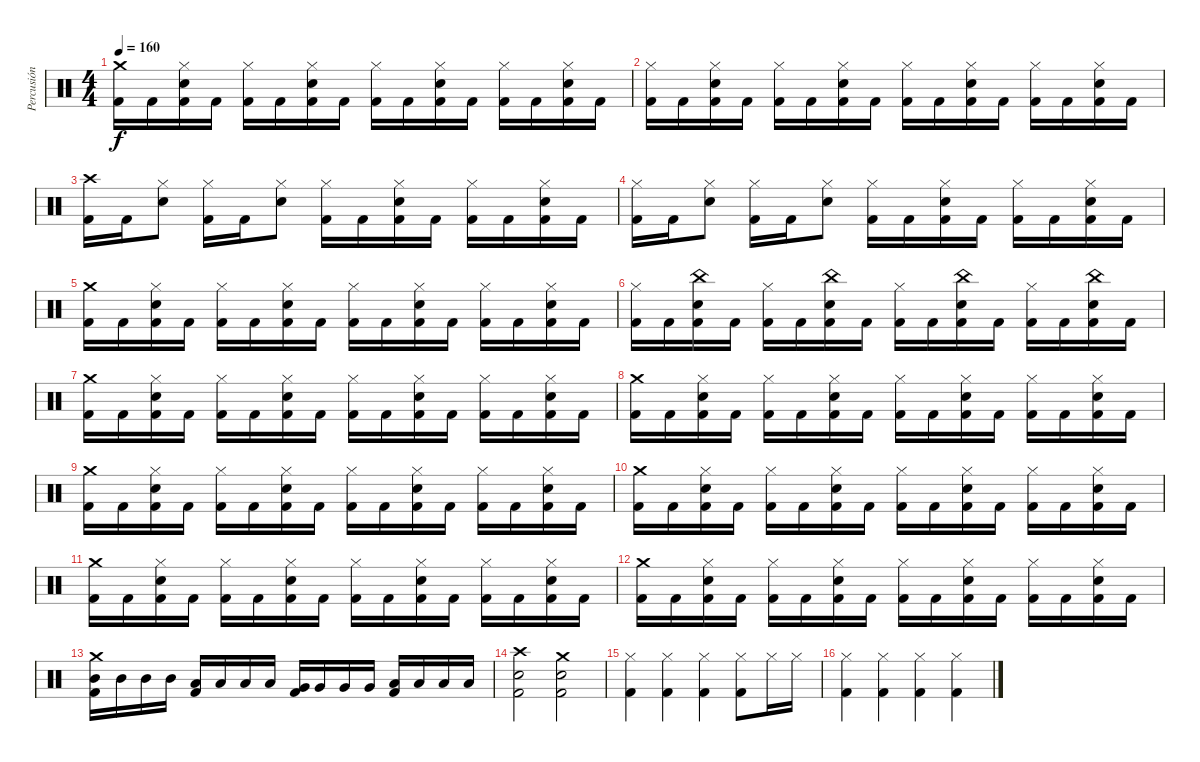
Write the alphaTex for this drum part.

\track ("Percusión" "Percusión") {instrument percussion}
\staff {score}
\articulation defaults
\ts (4 4)
\tempo 160
\clef neutral
\ks c
("Crash medium (hit)" "Kick (hit) 2").16{dy f} "Kick (hit) 2".16 ("Hi-Hat (closed)" "Electric Snare (hit)" "Kick (hit) 2").16 "Kick (hit) 2".16 ("Hi-Hat (closed)" "Kick (hit) 2").16 "Kick (hit) 2".16 ("Hi-Hat (closed)" "Electric Snare (hit)" "Kick (hit) 2").16 "Kick (hit) 2".16 ("Hi-Hat (closed)" "Kick (hit) 2").16 "Kick (hit) 2".16 ("Hi-Hat (closed)" "Electric Snare (hit)" "Kick (hit) 2").16 "Kick (hit) 2".16 ("Hi-Hat (closed)" "Kick (hit) 2").16 "Kick (hit) 2".16 ("Hi-Hat (closed)" "Electric Snare (hit)" "Kick (hit) 2").16 "Kick (hit) 2".16 |
("Hi-Hat (closed)" "Kick (hit) 2").16 "Kick (hit) 2".16 ("Hi-Hat (closed)" "Electric Snare (hit)" "Kick (hit) 2").16 "Kick (hit) 2".16 ("Hi-Hat (closed)" "Kick (hit) 2").16 "Kick (hit) 2".16 ("Hi-Hat (closed)" "Electric Snare (hit)" "Kick (hit) 2").16 "Kick (hit) 2".16 ("Hi-Hat (closed)" "Kick (hit) 2").16 "Kick (hit) 2".16 ("Hi-Hat (closed)" "Electric Snare (hit)" "Kick (hit) 2").16 "Kick (hit) 2".16 ("Hi-Hat (closed)" "Kick (hit) 2").16 "Kick (hit) 2".16 ("Hi-Hat (closed)" "Electric Snare (hit)" "Kick (hit) 2").16 "Kick (hit) 2".16 |
("Crash high (hit)" "Kick (hit) 2").16 "Kick (hit) 2".16 ("Hi-Hat (closed)" "Electric Snare (hit)").8 ("Hi-Hat (closed)" "Kick (hit) 2").16 "Kick (hit) 2".16 ("Hi-Hat (closed)" "Electric Snare (hit)").8 ("Hi-Hat (closed)" "Kick (hit) 2").16 "Kick (hit) 2".16 ("Hi-Hat (closed)" "Electric Snare (hit)" "Kick (hit) 2").16 "Kick (hit) 2".16 ("Hi-Hat (closed)" "Kick (hit) 2").16 "Kick (hit) 2".16 ("Hi-Hat (closed)" "Electric Snare (hit)" "Kick (hit) 2").16 "Kick (hit) 2".16 |
("Hi-Hat (closed)" "Kick (hit) 2").16 "Kick (hit) 2".16 ("Hi-Hat (closed)" "Electric Snare (hit)").8 ("Hi-Hat (closed)" "Kick (hit) 2").16 "Kick (hit) 2".16 ("Hi-Hat (closed)" "Electric Snare (hit)").8 ("Hi-Hat (closed)" "Kick (hit) 2").16 "Kick (hit) 2".16 ("Hi-Hat (closed)" "Electric Snare (hit)" "Kick (hit) 2").16 "Kick (hit) 2".16 ("Hi-Hat (closed)" "Kick (hit) 2").16 "Kick (hit) 2".16 ("Hi-Hat (closed)" "Electric Snare (hit)" "Kick (hit) 2").16 "Kick (hit) 2".16 |
("Crash medium (hit)" "Kick (hit) 2").16 "Kick (hit) 2".16 ("Hi-Hat (closed)" "Electric Snare (hit)" "Kick (hit) 2").16 "Kick (hit) 2".16 ("Hi-Hat (closed)" "Kick (hit) 2").16 "Kick (hit) 2".16 ("Hi-Hat (closed)" "Electric Snare (hit)" "Kick (hit) 2").16 "Kick (hit) 2".16 ("Hi-Hat (closed)" "Kick (hit) 2").16 "Kick (hit) 2".16 ("Hi-Hat (closed)" "Electric Snare (hit)" "Kick (hit) 2").16 "Kick (hit) 2".16 ("Hi-Hat (closed)" "Kick (hit) 2").16 "Kick (hit) 2".16 ("Hi-Hat (closed)" "Electric Snare (hit)" "Kick (hit) 2").16 "Kick (hit) 2".16 |
("Hi-Hat (closed)" "Kick (hit) 2").16 "Kick (hit) 2".16 ("China (hit)" "Electric Snare (hit)" "Kick (hit) 2").16 "Kick (hit) 2".16 ("Hi-Hat (closed)" "Kick (hit) 2").16 "Kick (hit) 2".16 ("China (hit)" "Electric Snare (hit)" "Kick (hit) 2").16 "Kick (hit) 2".16 ("Hi-Hat (closed)" "Kick (hit) 2").16 "Kick (hit) 2".16 ("China (hit)" "Electric Snare (hit)" "Kick (hit) 2").16 "Kick (hit) 2".16 ("Hi-Hat (closed)" "Kick (hit) 2").16 "Kick (hit) 2".16 ("China (hit)" "Electric Snare (hit)" "Kick (hit) 2").16 "Kick (hit) 2".16 |
("Crash medium (hit)" "Kick (hit) 2").16 "Kick (hit) 2".16 ("Hi-Hat (closed)" "Electric Snare (hit)" "Kick (hit) 2").16 "Kick (hit) 2".16 ("Hi-Hat (closed)" "Kick (hit) 2").16 "Kick (hit) 2".16 ("Hi-Hat (closed)" "Electric Snare (hit)" "Kick (hit) 2").16 "Kick (hit) 2".16 ("Hi-Hat (closed)" "Kick (hit) 2").16 "Kick (hit) 2".16 ("Hi-Hat (closed)" "Electric Snare (hit)" "Kick (hit) 2").16 "Kick (hit) 2".16 ("Hi-Hat (closed)" "Kick (hit) 2").16 "Kick (hit) 2".16 ("Hi-Hat (closed)" "Electric Snare (hit)" "Kick (hit) 2").16 "Kick (hit) 2".16 |
("Crash medium (hit)" "Kick (hit) 2").16 "Kick (hit) 2".16 ("Hi-Hat (closed)" "Electric Snare (hit)" "Kick (hit) 2").16 "Kick (hit) 2".16 ("Hi-Hat (closed)" "Kick (hit) 2").16 "Kick (hit) 2".16 ("Hi-Hat (closed)" "Electric Snare (hit)" "Kick (hit) 2").16 "Kick (hit) 2".16 ("Hi-Hat (closed)" "Kick (hit) 2").16 "Kick (hit) 2".16 ("Hi-Hat (closed)" "Electric Snare (hit)" "Kick (hit) 2").16 "Kick (hit) 2".16 ("Hi-Hat (closed)" "Kick (hit) 2").16 "Kick (hit) 2".16 ("Hi-Hat (closed)" "Electric Snare (hit)" "Kick (hit) 2").16 "Kick (hit) 2".16 |
("Crash medium (hit)" "Kick (hit) 2").16 "Kick (hit) 2".16 ("Hi-Hat (closed)" "Electric Snare (hit)" "Kick (hit) 2").16 "Kick (hit) 2".16 ("Hi-Hat (closed)" "Kick (hit) 2").16 "Kick (hit) 2".16 ("Hi-Hat (closed)" "Electric Snare (hit)" "Kick (hit) 2").16 "Kick (hit) 2".16 ("Hi-Hat (closed)" "Kick (hit) 2").16 "Kick (hit) 2".16 ("Hi-Hat (closed)" "Electric Snare (hit)" "Kick (hit) 2").16 "Kick (hit) 2".16 ("Hi-Hat (closed)" "Kick (hit) 2").16 "Kick (hit) 2".16 ("Hi-Hat (closed)" "Electric Snare (hit)" "Kick (hit) 2").16 "Kick (hit) 2".16 |
("Crash medium (hit)" "Kick (hit) 2").16 "Kick (hit) 2".16 ("Hi-Hat (closed)" "Electric Snare (hit)" "Kick (hit) 2").16 "Kick (hit) 2".16 ("Hi-Hat (closed)" "Kick (hit) 2").16 "Kick (hit) 2".16 ("Hi-Hat (closed)" "Electric Snare (hit)" "Kick (hit) 2").16 "Kick (hit) 2".16 ("Hi-Hat (closed)" "Kick (hit) 2").16 "Kick (hit) 2".16 ("Hi-Hat (closed)" "Electric Snare (hit)" "Kick (hit) 2").16 "Kick (hit) 2".16 ("Hi-Hat (closed)" "Kick (hit) 2").16 "Kick (hit) 2".16 ("Hi-Hat (closed)" "Electric Snare (hit)" "Kick (hit) 2").16 "Kick (hit) 2".16 |
("Crash medium (hit)" "Kick (hit) 2").16 "Kick (hit) 2".16 ("Hi-Hat (closed)" "Electric Snare (hit)" "Kick (hit) 2").16 "Kick (hit) 2".16 ("Hi-Hat (closed)" "Kick (hit) 2").16 "Kick (hit) 2".16 ("Hi-Hat (closed)" "Electric Snare (hit)" "Kick (hit) 2").16 "Kick (hit) 2".16 ("Hi-Hat (closed)" "Kick (hit) 2").16 "Kick (hit) 2".16 ("Hi-Hat (closed)" "Electric Snare (hit)" "Kick (hit) 2").16 "Kick (hit) 2".16 ("Hi-Hat (closed)" "Kick (hit) 2").16 "Kick (hit) 2".16 ("Hi-Hat (closed)" "Electric Snare (hit)" "Kick (hit) 2").16 "Kick (hit) 2".16 |
("Crash medium (hit)" "Kick (hit) 2").16 "Kick (hit) 2".16 ("Hi-Hat (closed)" "Electric Snare (hit)" "Kick (hit) 2").16 "Kick (hit) 2".16 ("Hi-Hat (closed)" "Kick (hit) 2").16 "Kick (hit) 2".16 ("Hi-Hat (closed)" "Electric Snare (hit)" "Kick (hit) 2").16 "Kick (hit) 2".16 ("Hi-Hat (closed)" "Kick (hit) 2").16 "Kick (hit) 2".16 ("Hi-Hat (closed)" "Electric Snare (hit)" "Kick (hit) 2").16 "Kick (hit) 2".16 ("Hi-Hat (closed)" "Kick (hit) 2").16 "Kick (hit) 2".16 ("Hi-Hat (closed)" "Electric Snare (hit)" "Kick (hit) 2").16 "Kick (hit) 2".16 |
("Crash medium (hit)" "Mid Tom (hit)" "Kick (hit) 2").16 "Mid Tom (hit)".16 "Mid Tom (hit)".16 "Mid Tom (hit)".16 ("Low Tom (hit)" "Kick (hit) 2").16 "Low Tom (hit)".16 "Low Tom (hit)".16 "Low Tom (hit)".16 ("Very Low Tom (hit)" "Kick (hit) 2").16 "Very Low Tom (hit)".16 "Very Low Tom (hit)".16 "Very Low Tom (hit)".16 ("Low Tom (hit)" "Kick (hit) 2").16 "Low Tom (hit)".16 "Low Tom (hit)".16 "Low Tom (hit)".16 |
("Crash high (hit)" "Electric Snare (hit)" "Kick (hit) 2").2 ("Crash medium (hit)" "Electric Snare (hit)" "Kick (hit) 2").2 |
("Hi-Hat (closed)" "Kick (hit) 2").4 ("Hi-Hat (closed)" "Kick (hit) 2").4 ("Hi-Hat (closed)" "Kick (hit) 2").4 ("Hi-Hat (closed)" "Kick (hit) 2").8 "Hi-Hat (closed)".16 "Hi-Hat (closed)".16 |
("Hi-Hat (closed)" "Kick (hit) 2").4 ("Hi-Hat (closed)" "Kick (hit) 2").4 ("Hi-Hat (closed)" "Kick (hit) 2").4 ("Hi-Hat (closed)" "Kick (hit) 2").4
